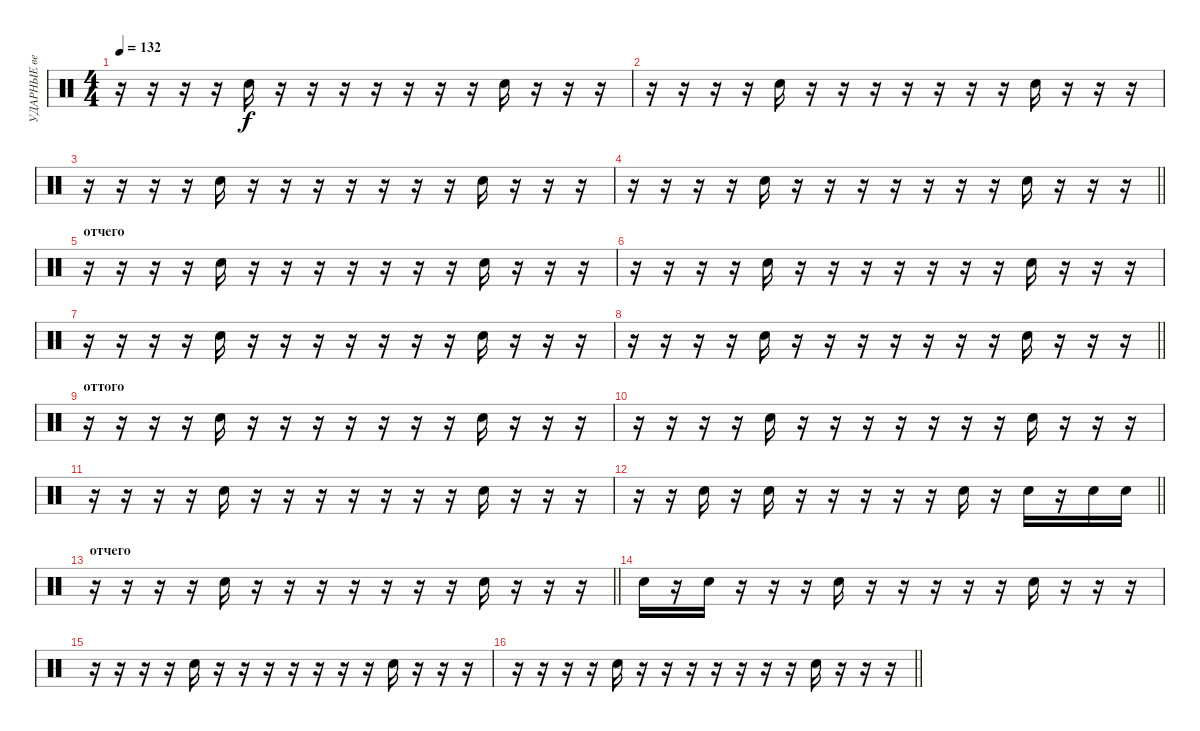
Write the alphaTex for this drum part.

\track ("УДАРНЫЕ ведущий" "УДАРНЫЕ ве") {instrument percussion}
\staff {score}
\articulation defaults
\ts (4 4)
\tempo 132
\clef neutral
\ks c
r.16{dy f} r.16 r.16 r.16 "Snare (hit) 2".16 r.16 r.16 r.16 r.16 r.16 r.16 r.16 "Snare (hit) 2".16 r.16 r.16 r.16 |
r.16 r.16 r.16 r.16 "Snare (hit) 2".16 r.16 r.16 r.16 r.16 r.16 r.16 r.16 "Snare (hit) 2".16 r.16 r.16 r.16 |
r.16 r.16 r.16 r.16 "Snare (hit) 2".16 r.16 r.16 r.16 r.16 r.16 r.16 r.16 "Snare (hit) 2".16 r.16 r.16 r.16 |
\barLineRight lightlight
r.16 r.16 r.16 r.16 "Snare (hit) 2".16 r.16 r.16 r.16 r.16 r.16 r.16 r.16 "Snare (hit) 2".16 r.16 r.16 r.16 |
\section ("" "отчего")
r.16 r.16 r.16 r.16 "Snare (hit) 2".16 r.16 r.16 r.16 r.16 r.16 r.16 r.16 "Snare (hit) 2".16 r.16 r.16 r.16 |
r.16 r.16 r.16 r.16 "Snare (hit) 2".16 r.16 r.16 r.16 r.16 r.16 r.16 r.16 "Snare (hit) 2".16 r.16 r.16 r.16 |
r.16 r.16 r.16 r.16 "Snare (hit) 2".16 r.16 r.16 r.16 r.16 r.16 r.16 r.16 "Snare (hit) 2".16 r.16 r.16 r.16 |
\barLineRight lightlight
r.16 r.16 r.16 r.16 "Snare (hit) 2".16 r.16 r.16 r.16 r.16 r.16 r.16 r.16 "Snare (hit) 2".16 r.16 r.16 r.16 |
\section ("" "оттого")
r.16 r.16 r.16 r.16 "Snare (hit) 2".16 r.16 r.16 r.16 r.16 r.16 r.16 r.16 "Snare (hit) 2".16 r.16 r.16 r.16 |
r.16 r.16 r.16 r.16 "Snare (hit) 2".16 r.16 r.16 r.16 r.16 r.16 r.16 r.16 "Snare (hit) 2".16 r.16 r.16 r.16 |
r.16 r.16 r.16 r.16 "Snare (hit) 2".16 r.16 r.16 r.16 r.16 r.16 r.16 r.16 "Snare (hit) 2".16 r.16 r.16 r.16 |
\barLineRight lightlight
r.16 r.16 "Snare (hit) 2".16 r.16 "Snare (hit) 2".16 r.16 r.16 r.16 r.16 r.16 "Snare (hit) 2".16 r.16 "Snare (hit) 2".16 r.16 "Snare (hit) 2".16 "Snare (hit) 2".16 |
\section ("" "отчего")
\barLineRight lightlight
r.16 r.16 r.16 r.16 "Snare (hit) 2".16 r.16 r.16 r.16 r.16 r.16 r.16 r.16 "Snare (hit) 2".16 r.16 r.16 r.16 |
"Snare (hit) 2".16 r.16 "Snare (hit) 2".16 r.16 r.16 r.16 "Snare (hit) 2".16 r.16 r.16 r.16 r.16 r.16 "Snare (hit) 2".16 r.16 r.16 r.16 |
r.16 r.16 r.16 r.16 "Snare (hit) 2".16 r.16 r.16 r.16 r.16 r.16 r.16 r.16 "Snare (hit) 2".16 r.16 r.16 r.16 |
\barLineRight lightlight
r.16 r.16 r.16 r.16 "Snare (hit) 2".16 r.16 r.16 r.16 r.16 r.16 r.16 r.16 "Snare (hit) 2".16 r.16 r.16 r.16
